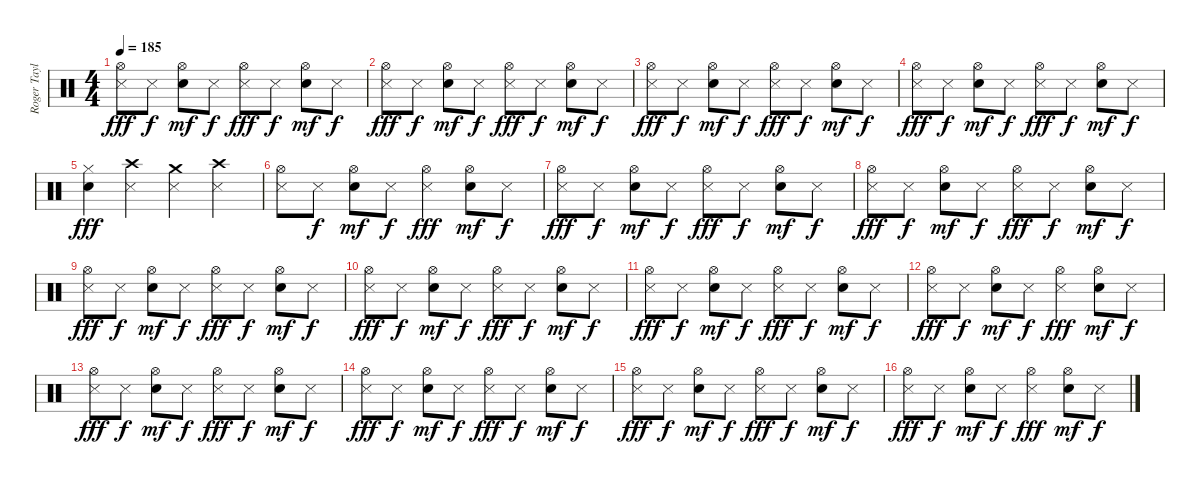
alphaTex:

\track ("Roger Taylor" "Roger Tayl") {instrument percussion}
\staff {score}
\articulation defaults
\ts (4 4)
\tempo 185
\clef neutral
\ks c
("Metronome (hit)" "Hi-Hat (open)").8{dy fff} "Metronome (hit)".8{dy f} ("Snare (hit) 2" "Hi-Hat (open)").8{dy mf} "Metronome (hit)".8{dy f} ("Metronome (hit)" "Hi-Hat (open)").8{dy fff} "Metronome (hit)".8{dy f} ("Snare (hit) 2" "Hi-Hat (open)").8{dy mf} "Metronome (hit)".8{dy f} |
("Metronome (hit)" "Hi-Hat (open)").8{dy fff} "Metronome (hit)".8{dy f} ("Snare (hit) 2" "Hi-Hat (open)").8{dy mf} "Metronome (hit)".8{dy f} ("Metronome (hit)" "Hi-Hat (open)").8{dy fff} "Metronome (hit)".8{dy f} ("Snare (hit) 2" "Hi-Hat (open)").8{dy mf} "Metronome (hit)".8{dy f} |
("Metronome (hit)" "Hi-Hat (open)").8{dy fff} "Metronome (hit)".8{dy f} ("Snare (hit) 2" "Hi-Hat (open)").8{dy mf} "Metronome (hit)".8{dy f} ("Metronome (hit)" "Hi-Hat (open)").8{dy fff} "Metronome (hit)".8{dy f} ("Snare (hit) 2" "Hi-Hat (open)").8{dy mf} "Metronome (hit)".8{dy f} |
("Metronome (hit)" "Hi-Hat (open)").8{dy fff} "Metronome (hit)".8{dy f} ("Snare (hit) 2" "Hi-Hat (open)").8{dy mf} "Metronome (hit)".8{dy f} ("Metronome (hit)" "Hi-Hat (open)").8{dy fff} "Metronome (hit)".8{dy f} ("Snare (hit) 2" "Hi-Hat (open)").8{dy mf} "Metronome (hit)".8{dy f} |
("Hi-Hat (closed)" "Snare (hit) 2").4{dy fff} ("Crash high (hit)" "Metronome (hit)").4 ("Crash medium (hit)" "Metronome (hit)").4 ("Crash high (hit)" "Metronome (hit)").4 |
("Metronome (hit)" "Hi-Hat (open)").8 "Metronome (hit)".8{dy f} ("Snare (hit) 2" "Hi-Hat (open)").8{dy mf} "Metronome (hit)".8{dy f} ("Metronome (hit)" "Hi-Hat (open)").4{dy fff} ("Snare (hit) 2" "Hi-Hat (open)").8{dy mf} "Metronome (hit)".8{dy f} |
("Metronome (hit)" "Hi-Hat (open)").8{dy fff} "Metronome (hit)".8{dy f} ("Snare (hit) 2" "Hi-Hat (open)").8{dy mf} "Metronome (hit)".8{dy f} ("Metronome (hit)" "Hi-Hat (open)").8{dy fff} "Metronome (hit)".8{dy f} ("Snare (hit) 2" "Hi-Hat (open)").8{dy mf} "Metronome (hit)".8{dy f} |
("Metronome (hit)" "Hi-Hat (open)").8{dy fff} "Metronome (hit)".8{dy f} ("Snare (hit) 2" "Hi-Hat (open)").8{dy mf} "Metronome (hit)".8{dy f} ("Metronome (hit)" "Hi-Hat (open)").8{dy fff} "Metronome (hit)".8{dy f} ("Snare (hit) 2" "Hi-Hat (open)").8{dy mf} "Metronome (hit)".8{dy f} |
("Metronome (hit)" "Hi-Hat (open)").8{dy fff} "Metronome (hit)".8{dy f} ("Snare (hit) 2" "Hi-Hat (open)").8{dy mf} "Metronome (hit)".8{dy f} ("Metronome (hit)" "Hi-Hat (open)").8{dy fff} "Metronome (hit)".8{dy f} ("Snare (hit) 2" "Hi-Hat (open)").8{dy mf} "Metronome (hit)".8{dy f} |
("Metronome (hit)" "Hi-Hat (open)").8{dy fff} "Metronome (hit)".8{dy f} ("Snare (hit) 2" "Hi-Hat (open)").8{dy mf} "Metronome (hit)".8{dy f} ("Metronome (hit)" "Hi-Hat (open)").8{dy fff} "Metronome (hit)".8{dy f} ("Snare (hit) 2" "Hi-Hat (open)").8{dy mf} "Metronome (hit)".8{dy f} |
("Metronome (hit)" "Hi-Hat (open)").8{dy fff} "Metronome (hit)".8{dy f} ("Snare (hit) 2" "Hi-Hat (open)").8{dy mf} "Metronome (hit)".8{dy f} ("Metronome (hit)" "Hi-Hat (open)").8{dy fff} "Metronome (hit)".8{dy f} ("Snare (hit) 2" "Hi-Hat (open)").8{dy mf} "Metronome (hit)".8{dy f} |
("Metronome (hit)" "Hi-Hat (open)").8{dy fff} "Metronome (hit)".8{dy f} ("Snare (hit) 2" "Hi-Hat (open)").8{dy mf} "Metronome (hit)".8{dy f} ("Metronome (hit)" "Hi-Hat (open)").4{dy fff} ("Snare (hit) 2" "Hi-Hat (open)").8{dy mf} "Metronome (hit)".8{dy f} |
("Metronome (hit)" "Hi-Hat (open)").8{dy fff} "Metronome (hit)".8{dy f} ("Snare (hit) 2" "Hi-Hat (open)").8{dy mf} "Metronome (hit)".8{dy f} ("Metronome (hit)" "Hi-Hat (open)").8{dy fff} "Metronome (hit)".8{dy f} ("Snare (hit) 2" "Hi-Hat (open)").8{dy mf} "Metronome (hit)".8{dy f} |
("Metronome (hit)" "Hi-Hat (open)").8{dy fff} "Metronome (hit)".8{dy f} ("Snare (hit) 2" "Hi-Hat (open)").8{dy mf} "Metronome (hit)".8{dy f} ("Metronome (hit)" "Hi-Hat (open)").8{dy fff} "Metronome (hit)".8{dy f} ("Snare (hit) 2" "Hi-Hat (open)").8{dy mf} "Metronome (hit)".8{dy f} |
("Metronome (hit)" "Hi-Hat (open)").8{dy fff} "Metronome (hit)".8{dy f} ("Snare (hit) 2" "Hi-Hat (open)").8{dy mf} "Metronome (hit)".8{dy f} ("Metronome (hit)" "Hi-Hat (open)").8{dy fff} "Metronome (hit)".8{dy f} ("Snare (hit) 2" "Hi-Hat (open)").8{dy mf} "Metronome (hit)".8{dy f} |
("Metronome (hit)" "Hi-Hat (open)").8{dy fff} "Metronome (hit)".8{dy f} ("Snare (hit) 2" "Hi-Hat (open)").8{dy mf} "Metronome (hit)".8{dy f} ("Metronome (hit)" "Hi-Hat (open)").4{dy fff} ("Snare (hit) 2" "Hi-Hat (open)").8{dy mf} "Metronome (hit)".8{dy f}
